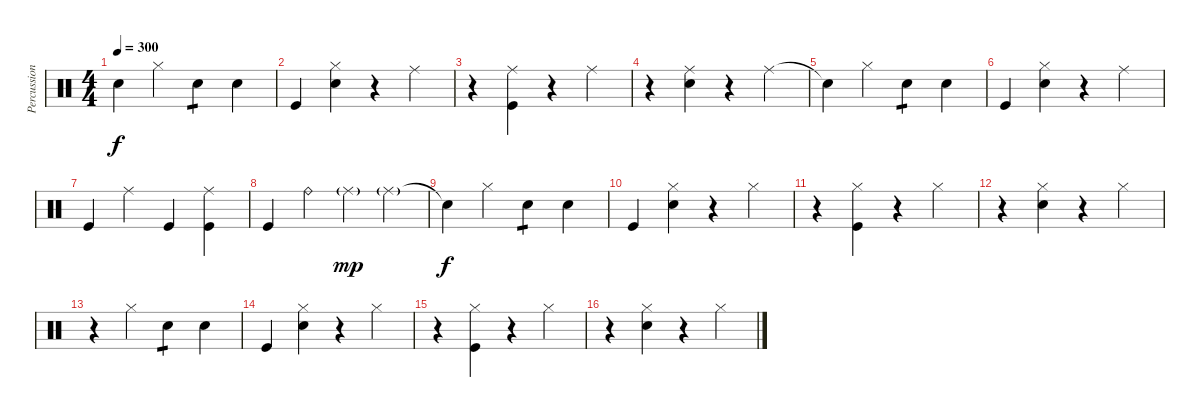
\track ("Percussion" "Percussion") {instrument percussion}
\staff {score}
\articulation defaults
\ts (4 4)
\tempo 300
\clef neutral
\ks c "Snare (hit)"{t}.4{dy f} "Hi-Hat (closed)".4 "Electric Snare (hit)".4{tp 1} "Electric Snare (hit)".4
|
"Kick (hit)".4 ("Electric Snare (hit)" "Hi-Hat (closed)").4 r.4 "Ride (middle)".4 |
r.4 ("Kick (hit)" "Ride (middle)").4 r.4 "Ride (middle)".4 |
r.4 ("Electric Snare (hit)" "Ride (middle)").4 r.4 "Ride (middle)".4 |
"Snare (hit)"{t}.4 "Hi-Hat (closed)".4 "Electric Snare (hit)".4{tp 1} "Electric Snare (hit)".4 |
"Kick (hit)".4 ("Electric Snare (hit)" "Hi-Hat (closed)").4 r.4 "Ride (middle)".4 |
"Kick (hit)".4 "Ride (middle)".4 "Kick (hit)".4 ("Kick (hit)" "Ride (middle)").4 |
"Kick (hit)".4 "Ride (bell)".4 "Ride (middle)"{g}.4{dy mp} "Ride (middle)"{g}.4 |
"Snare (hit)"{t}.4{dy f} "Hi-Hat (closed)".4 "Electric Snare (hit)".4{tp 1} "Electric Snare (hit)".4 |
"Kick (hit)".4 ("Electric Snare (hit)" "Hi-Hat (closed)").4 r.4 "Hi-Hat (closed)".4 |
r.4 ("Kick (hit)" "Hi-Hat (closed)").4 r.4 "Hi-Hat (closed)".4 |
r.4 ("Electric Snare (hit)" "Hi-Hat (closed)").4 r.4 "Hi-Hat (closed)".4 |
r.4 "Hi-Hat (closed)".4 "Electric Snare (hit)".4{tp 1} "Electric Snare (hit)".4 |
"Kick (hit)".4 ("Electric Snare (hit)" "Hi-Hat (closed)").4 r.4 "Hi-Hat (closed)".4 |
r.4 ("Kick (hit)" "Hi-Hat (closed)").4 r.4 "Hi-Hat (closed)".4 |
r.4 ("Electric Snare (hit)" "Hi-Hat (closed)").4 r.4 "Hi-Hat (closed)".4
